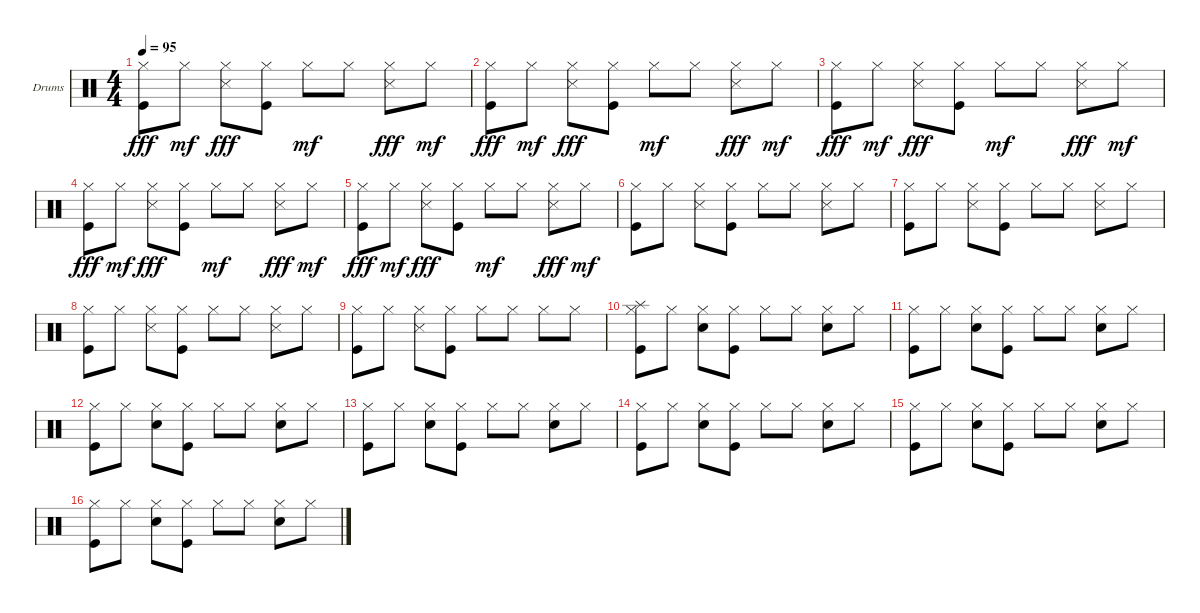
\bracketExtendMode groupsimilarinstruments
\firstSystemTrackNameOrientation horizontal
\otherSystemsTrackNameOrientation horizontal
\track ("Drumkit" "Drums") {instrument percussion}
\staff {score}
\articulation defaults
\ts (4 4)
\tempo 95
\clef neutral
\ks c
("Kick (hit)" "Hi-Hat (closed)").8{dy fff} "Hi-Hat (closed)".8{dy mf} ("Snare (side stick) 3" "Hi-Hat (closed)").8{dy fff} ("Kick (hit)" "Hi-Hat (closed)").8 "Hi-Hat (closed)".8{dy mf} "Hi-Hat (closed)".8 ("Snare (side stick) 3" "Hi-Hat (closed)").8{dy fff} "Hi-Hat (closed)".8{dy mf} |
("Kick (hit)" "Hi-Hat (closed)").8{dy fff} "Hi-Hat (closed)".8{dy mf} ("Snare (side stick) 3" "Hi-Hat (closed)").8{dy fff} ("Kick (hit)" "Hi-Hat (closed)").8 "Hi-Hat (closed)".8{dy mf} "Hi-Hat (closed)".8 ("Snare (side stick) 3" "Hi-Hat (closed)").8{dy fff} "Hi-Hat (closed)".8{dy mf} |
("Kick (hit)" "Hi-Hat (closed)").8{dy fff} "Hi-Hat (closed)".8{dy mf} ("Snare (side stick) 3" "Hi-Hat (closed)").8{dy fff} ("Kick (hit)" "Hi-Hat (closed)").8 "Hi-Hat (closed)".8{dy mf} "Hi-Hat (closed)".8 ("Snare (side stick) 3" "Hi-Hat (closed)").8{dy fff} "Hi-Hat (closed)".8{dy mf} |
("Kick (hit)" "Hi-Hat (closed)").8{dy fff} "Hi-Hat (closed)".8{dy mf} ("Snare (side stick) 3" "Hi-Hat (closed)").8{dy fff} ("Kick (hit)" "Hi-Hat (closed)").8 "Hi-Hat (closed)".8{dy mf} "Hi-Hat (closed)".8 ("Snare (side stick) 3" "Hi-Hat (closed)").8{dy fff} "Hi-Hat (closed)".8{dy mf} |
("Kick (hit)" "Hi-Hat (closed)").8{dy fff} "Hi-Hat (closed)".8{dy mf} ("Snare (side stick) 3" "Hi-Hat (closed)").8{dy fff} ("Kick (hit)" "Hi-Hat (closed)").8 "Hi-Hat (closed)".8{dy mf} "Hi-Hat (closed)".8 ("Snare (side stick) 3" "Hi-Hat (closed)").8{dy fff} "Hi-Hat (closed)".8{dy mf} |
("Hi-Hat (closed)" "Kick (hit)").8 "Hi-Hat (closed)".8 ("Hi-Hat (closed)" "Snare (side stick) 3").8 ("Hi-Hat (closed)" "Kick (hit)").8 "Hi-Hat (closed)".8 "Hi-Hat (closed)".8 ("Hi-Hat (closed)" "Snare (side stick) 3").8 "Hi-Hat (closed)".8 |
("Hi-Hat (closed)" "Kick (hit)").8 "Hi-Hat (closed)".8 ("Hi-Hat (closed)" "Snare (side stick) 3").8 ("Hi-Hat (closed)" "Kick (hit)").8 "Hi-Hat (closed)".8 "Hi-Hat (closed)".8 ("Hi-Hat (closed)" "Snare (side stick) 3").8 "Hi-Hat (closed)".8 |
("Hi-Hat (closed)" "Kick (hit)").8 "Hi-Hat (closed)".8 ("Hi-Hat (closed)" "Snare (side stick) 3").8 ("Hi-Hat (closed)" "Kick (hit)").8 "Hi-Hat (closed)".8 "Hi-Hat (closed)".8 ("Hi-Hat (closed)" "Snare (side stick) 3").8 "Hi-Hat (closed)".8 |
("Hi-Hat (closed)" "Kick (hit)").8 "Hi-Hat (closed)".8 ("Hi-Hat (closed)" "Snare (side stick) 3").8 ("Hi-Hat (closed)" "Kick (hit)").8 "Hi-Hat (closed)".8 "Hi-Hat (closed)".8 "Hi-Hat (closed)".8 "Hi-Hat (closed)".8 |
("Hi-Hat (closed)" "Kick (hit)" "Splash (hit)").8 "Hi-Hat (closed)".8 ("Hi-Hat (closed)" "Snare (hit) 2").8 ("Hi-Hat (closed)" "Kick (hit)").8 "Hi-Hat (closed)".8 "Hi-Hat (closed)".8 ("Hi-Hat (closed)" "Snare (hit) 2").8 "Hi-Hat (closed)".8 |
("Hi-Hat (closed)" "Kick (hit)").8 "Hi-Hat (closed)".8 ("Hi-Hat (closed)" "Snare (hit) 2").8 ("Hi-Hat (closed)" "Kick (hit)").8 "Hi-Hat (closed)".8 "Hi-Hat (closed)".8 ("Hi-Hat (closed)" "Snare (hit) 2").8 "Hi-Hat (closed)".8 |
("Hi-Hat (closed)" "Kick (hit)").8 "Hi-Hat (closed)".8 ("Hi-Hat (closed)" "Snare (hit) 2").8 ("Hi-Hat (closed)" "Kick (hit)").8 "Hi-Hat (closed)".8 "Hi-Hat (closed)".8 ("Hi-Hat (closed)" "Snare (hit) 2").8 "Hi-Hat (closed)".8 |
("Hi-Hat (closed)" "Kick (hit)").8 "Hi-Hat (closed)".8 ("Hi-Hat (closed)" "Snare (hit) 2").8 ("Hi-Hat (closed)" "Kick (hit)").8 "Hi-Hat (closed)".8 "Hi-Hat (closed)".8 ("Hi-Hat (closed)" "Snare (hit) 2").8 "Hi-Hat (closed)".8 |
("Hi-Hat (closed)" "Kick (hit)").8 "Hi-Hat (closed)".8 ("Hi-Hat (closed)" "Snare (hit) 2").8 ("Hi-Hat (closed)" "Kick (hit)").8 "Hi-Hat (closed)".8 "Hi-Hat (closed)".8 ("Hi-Hat (closed)" "Snare (hit) 2").8 "Hi-Hat (closed)".8 |
("Hi-Hat (closed)" "Kick (hit)").8 "Hi-Hat (closed)".8 ("Hi-Hat (closed)" "Snare (hit) 2").8 ("Hi-Hat (closed)" "Kick (hit)").8 "Hi-Hat (closed)".8 "Hi-Hat (closed)".8 ("Hi-Hat (closed)" "Snare (hit) 2").8 "Hi-Hat (closed)".8 |
("Hi-Hat (closed)" "Kick (hit)").8 "Hi-Hat (closed)".8 ("Hi-Hat (closed)" "Snare (hit) 2").8 ("Hi-Hat (closed)" "Kick (hit)").8 "Hi-Hat (closed)".8 "Hi-Hat (closed)".8 ("Hi-Hat (closed)" "Snare (hit) 2").8 "Hi-Hat (closed)".8
